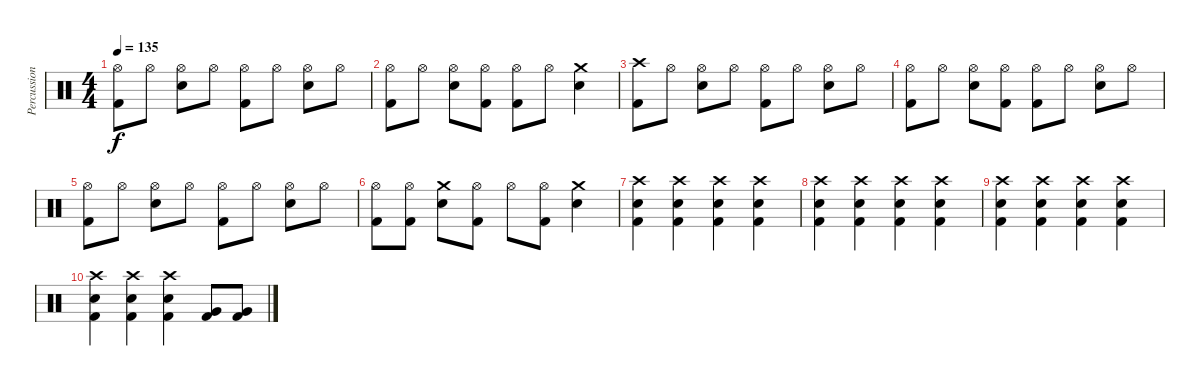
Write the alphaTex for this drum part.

\track ("Percussion" "Percussion") {instrument percussion}
\staff {score}
\articulation defaults
\ts (4 4)
\tempo 135
\clef neutral
\ks c
("Hi-Hat (open)" "Kick (hit) 2").8{dy f} "Hi-Hat (open)".8 ("Hi-Hat (open)" "Electric Snare (hit)").8 "Hi-Hat (open)".8 ("Hi-Hat (open)" "Kick (hit) 2").8 "Hi-Hat (open)".8 ("Hi-Hat (open)" "Electric Snare (hit)").8 "Hi-Hat (open)".8 |
("Hi-Hat (open)" "Kick (hit) 2").8 "Hi-Hat (open)".8 ("Hi-Hat (open)" "Electric Snare (hit)").8 ("Hi-Hat (open)" "Kick (hit) 2").8 ("Hi-Hat (open)" "Kick (hit) 2").8 "Hi-Hat (open)".8 ("Crash medium (hit)" "Electric Snare (hit)").4 |
("Crash high (hit)" "Kick (hit) 2").8 "Hi-Hat (open)".8 ("Hi-Hat (open)" "Electric Snare (hit)").8 "Hi-Hat (open)".8 ("Hi-Hat (open)" "Kick (hit) 2").8 "Hi-Hat (open)".8 ("Hi-Hat (open)" "Electric Snare (hit)").8 "Hi-Hat (open)".8 |
("Hi-Hat (open)" "Kick (hit) 2").8 "Hi-Hat (open)".8 ("Hi-Hat (open)" "Electric Snare (hit)").8 ("Hi-Hat (open)" "Kick (hit) 2").8 ("Hi-Hat (open)" "Kick (hit) 2").8 "Hi-Hat (open)".8 ("Hi-Hat (open)" "Electric Snare (hit)").8 "Hi-Hat (open)".8 |
("Hi-Hat (open)" "Kick (hit) 2").8 "Hi-Hat (open)".8 ("Hi-Hat (open)" "Electric Snare (hit)").8 "Hi-Hat (open)".8 ("Hi-Hat (open)" "Kick (hit) 2").8 "Hi-Hat (open)".8 ("Hi-Hat (open)" "Electric Snare (hit)").8 "Hi-Hat (open)".8 |
("Hi-Hat (open)" "Kick (hit) 2").8 ("Hi-Hat (open)" "Kick (hit) 2").8 ("Crash medium (hit)" "Electric Snare (hit)").8 ("Hi-Hat (open)" "Kick (hit) 2").8 "Hi-Hat (open)".8 ("Hi-Hat (open)" "Kick (hit) 2").8 ("Crash medium (hit)" "Electric Snare (hit)").4 |
("Crash high (hit)" "Electric Snare (hit)" "Kick (hit) 2").4 ("Crash high (hit)" "Electric Snare (hit)" "Kick (hit) 2").4 ("Crash high (hit)" "Electric Snare (hit)" "Kick (hit) 2").4 ("Crash high (hit)" "Electric Snare (hit)" "Kick (hit) 2").4 |
("Crash high (hit)" "Electric Snare (hit)" "Kick (hit) 2").4 ("Crash high (hit)" "Electric Snare (hit)" "Kick (hit) 2").4 ("Crash high (hit)" "Electric Snare (hit)" "Kick (hit) 2").4 ("Crash high (hit)" "Electric Snare (hit)" "Kick (hit) 2").4 |
("Crash high (hit)" "Electric Snare (hit)" "Kick (hit) 2").4 ("Crash high (hit)" "Electric Snare (hit)" "Kick (hit) 2").4 ("Crash high (hit)" "Electric Snare (hit)" "Kick (hit) 2").4 ("Crash high (hit)" "Electric Snare (hit)" "Kick (hit) 2").4 |
("Crash high (hit)" "Electric Snare (hit)" "Kick (hit) 2").4 ("Crash high (hit)" "Electric Snare (hit)" "Kick (hit) 2").4 ("Crash high (hit)" "Electric Snare (hit)" "Kick (hit) 2").4 ("Very Low Tom (hit)" "Kick (hit) 2").8 ("Very Low Tom (hit)" "Kick (hit) 2").8
